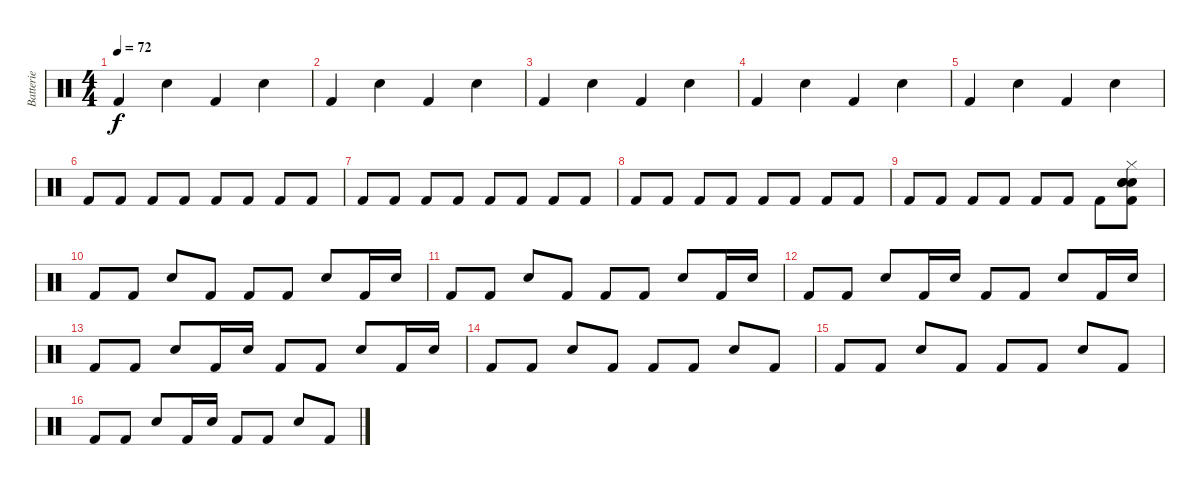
\track ("Batterie" "Batterie") {instrument percussion}
\staff {score}
\articulation defaults
\ts (4 4)
\tempo 72
\clef neutral
\ks c "Kick (hit) 2".4{dy f} "Electric Snare (hit)".4 "Kick (hit) 2".4 "Electric Snare (hit)".4
|
"Kick (hit) 2".4 "Electric Snare (hit)".4 "Kick (hit) 2".4 "Electric Snare (hit)".4 |
"Kick (hit) 2".4 "Electric Snare (hit)".4 "Kick (hit) 2".4 "Electric Snare (hit)".4 |
"Kick (hit) 2".4 "Electric Snare (hit)".4 "Kick (hit) 2".4 "Electric Snare (hit)".4 |
"Kick (hit) 2".4 "Electric Snare (hit)".4 "Kick (hit) 2".4 "Electric Snare (hit)".4 |
"Kick (hit) 2".8 "Kick (hit) 2".8 "Kick (hit) 2".8 "Kick (hit) 2".8 "Kick (hit) 2".8 "Kick (hit) 2".8 "Kick (hit) 2".8 "Kick (hit) 2".8 |
"Kick (hit) 2".8 "Kick (hit) 2".8 "Kick (hit) 2".8 "Kick (hit) 2".8 "Kick (hit) 2".8 "Kick (hit) 2".8 "Kick (hit) 2".8 "Kick (hit) 2".8 |
"Kick (hit) 2".8 "Kick (hit) 2".8 "Kick (hit) 2".8 "Kick (hit) 2".8 "Kick (hit) 2".8 "Kick (hit) 2".8 "Kick (hit) 2".8 "Kick (hit) 2".8 |
"Kick (hit) 2".8 "Kick (hit) 2".8 "Kick (hit) 2".8 "Kick (hit) 2".8 "Kick (hit) 2".8 "Kick (hit) 2".8 "Kick (hit) 2".8 ("Electric Snare (hit)" "Electric Snare (hit)" "Electric Snare (hit)" "Kick (hit) 2" "Hi-Hat (closed)").8 |
"Kick (hit) 2".8 "Kick (hit) 2".8 "Electric Snare (hit)".8 "Kick (hit) 2".8 "Kick (hit) 2".8 "Kick (hit) 2".8 "Electric Snare (hit)".8 "Kick (hit) 2".16 "Electric Snare (hit)".16 |
"Kick (hit) 2".8 "Kick (hit) 2".8 "Electric Snare (hit)".8 "Kick (hit) 2".8 "Kick (hit) 2".8 "Kick (hit) 2".8 "Electric Snare (hit)".8 "Kick (hit) 2".16 "Electric Snare (hit)".16 |
"Kick (hit) 2".8 "Kick (hit) 2".8 "Electric Snare (hit)".8 "Kick (hit) 2".16 "Electric Snare (hit)".16 "Kick (hit) 2".8 "Kick (hit) 2".8 "Electric Snare (hit)".8 "Kick (hit) 2".16 "Electric Snare (hit)".16 |
"Kick (hit) 2".8 "Kick (hit) 2".8 "Electric Snare (hit)".8 "Kick (hit) 2".16 "Electric Snare (hit)".16 "Kick (hit) 2".8 "Kick (hit) 2".8 "Electric Snare (hit)".8 "Kick (hit) 2".16 "Electric Snare (hit)".16 |
"Kick (hit) 2".8 "Kick (hit) 2".8 "Electric Snare (hit)".8 "Kick (hit) 2".8 "Kick (hit) 2".8 "Kick (hit) 2".8 "Electric Snare (hit)".8 "Kick (hit) 2".8 |
"Kick (hit) 2".8 "Kick (hit) 2".8 "Electric Snare (hit)".8 "Kick (hit) 2".8 "Kick (hit) 2".8 "Kick (hit) 2".8 "Electric Snare (hit)".8 "Kick (hit) 2".8 |
"Kick (hit) 2".8 "Kick (hit) 2".8 "Electric Snare (hit)".8 "Kick (hit) 2".16 "Electric Snare (hit)".16 "Kick (hit) 2".8 "Kick (hit) 2".8 "Electric Snare (hit)".8 "Kick (hit) 2".8
